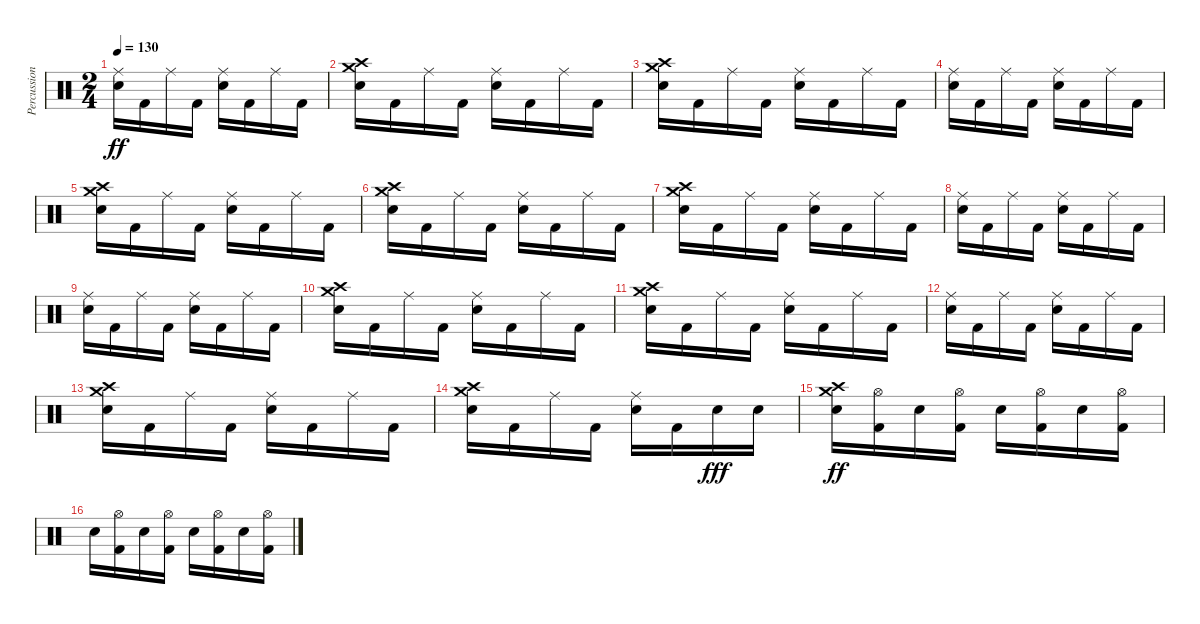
\track ("Percussion" "Percussion") {instrument percussion}
\staff {score}
\articulation defaults
\ts (2 4)
\tempo 130
\clef neutral
\ks c
("Ride (middle)" "Snare (hit) 2").16{dy ff} "Kick (hit) 2".16 "Ride (middle)".16 "Kick (hit) 2".16 ("Ride (middle)" "Snare (hit) 2").16 "Kick (hit) 2".16 "Ride (middle)".16 "Kick (hit) 2".16 |
("Crash medium (hit)" "Crash high (hit)" "Snare (hit) 2").16 "Kick (hit) 2".16 "Ride (middle)".16 "Kick (hit) 2".16 ("Ride (middle)" "Snare (hit) 2").16 "Kick (hit) 2".16 "Ride (middle)".16 "Kick (hit) 2".16 |
("Crash medium (hit)" "Crash high (hit)" "Snare (hit) 2").16 "Kick (hit) 2".16 "Ride (middle)".16 "Kick (hit) 2".16 ("Ride (middle)" "Snare (hit) 2").16 "Kick (hit) 2".16 "Ride (middle)".16 "Kick (hit) 2".16 |
("Ride (middle)" "Snare (hit) 2").16 "Kick (hit) 2".16 "Ride (middle)".16 "Kick (hit) 2".16 ("Ride (middle)" "Snare (hit) 2").16 "Kick (hit) 2".16 "Ride (middle)".16 "Kick (hit) 2".16 |
("Crash medium (hit)" "Crash high (hit)" "Snare (hit) 2").16 "Kick (hit) 2".16 "Ride (middle)".16 "Kick (hit) 2".16 ("Ride (middle)" "Snare (hit) 2").16 "Kick (hit) 2".16 "Ride (middle)".16 "Kick (hit) 2".16 |
("Crash medium (hit)" "Crash high (hit)" "Snare (hit) 2").16 "Kick (hit) 2".16 "Ride (middle)".16 "Kick (hit) 2".16 ("Ride (middle)" "Snare (hit) 2").16 "Kick (hit) 2".16 "Ride (middle)".16 "Kick (hit) 2".16 |
("Crash medium (hit)" "Crash high (hit)" "Snare (hit) 2").16 "Kick (hit) 2".16 "Ride (middle)".16 "Kick (hit) 2".16 ("Ride (middle)" "Snare (hit) 2").16 "Kick (hit) 2".16 "Ride (middle)".16 "Kick (hit) 2".16 |
("Ride (middle)" "Snare (hit) 2").16 "Kick (hit) 2".16 "Ride (middle)".16 "Kick (hit) 2".16 ("Ride (middle)" "Snare (hit) 2").16 "Kick (hit) 2".16 "Ride (middle)".16 "Kick (hit) 2".16 |
("Ride (middle)" "Snare (hit) 2").16 "Kick (hit) 2".16 "Ride (middle)".16 "Kick (hit) 2".16 ("Ride (middle)" "Snare (hit) 2").16 "Kick (hit) 2".16 "Ride (middle)".16 "Kick (hit) 2".16 |
("Crash medium (hit)" "Crash high (hit)" "Snare (hit) 2").16 "Kick (hit) 2".16 "Ride (middle)".16 "Kick (hit) 2".16 ("Ride (middle)" "Snare (hit) 2").16 "Kick (hit) 2".16 "Ride (middle)".16 "Kick (hit) 2".16 |
("Crash medium (hit)" "Crash high (hit)" "Snare (hit) 2").16 "Kick (hit) 2".16 "Ride (middle)".16 "Kick (hit) 2".16 ("Ride (middle)" "Snare (hit) 2").16 "Kick (hit) 2".16 "Ride (middle)".16 "Kick (hit) 2".16 |
("Ride (middle)" "Snare (hit) 2").16 "Kick (hit) 2".16 "Ride (middle)".16 "Kick (hit) 2".16 ("Ride (middle)" "Snare (hit) 2").16 "Kick (hit) 2".16 "Ride (middle)".16 "Kick (hit) 2".16 |
("Crash medium (hit)" "Crash high (hit)" "Snare (hit) 2").16 "Kick (hit) 2".16 "Ride (middle)".16 "Kick (hit) 2".16 ("Ride (middle)" "Snare (hit) 2").16 "Kick (hit) 2".16 "Ride (middle)".16 "Kick (hit) 2".16 |
("Crash medium (hit)" "Crash high (hit)" "Snare (hit) 2").16 "Kick (hit) 2".16 "Ride (middle)".16 "Kick (hit) 2".16 ("Ride (middle)" "Snare (hit) 2").16 "Kick (hit) 2".16 "Snare (hit) 2".16{dy fff} "Snare (hit) 2".16 |
("Crash medium (hit)" "Crash high (hit)" "Snare (hit) 2").16{dy ff} ("Hi-Hat (open)" "Kick (hit) 2").16 "Snare (hit) 2".16 ("Hi-Hat (open)" "Kick (hit) 2").16 "Snare (hit) 2".16 ("Hi-Hat (open)" "Kick (hit) 2").16 "Snare (hit) 2".16 ("Hi-Hat (open)" "Kick (hit) 2").16 |
"Snare (hit) 2".16 ("Hi-Hat (open)" "Kick (hit) 2").16 "Snare (hit) 2".16 ("Hi-Hat (open)" "Kick (hit) 2").16 "Snare (hit) 2".16 ("Hi-Hat (open)" "Kick (hit) 2").16 "Snare (hit) 2".16 ("Hi-Hat (open)" "Kick (hit) 2").16
